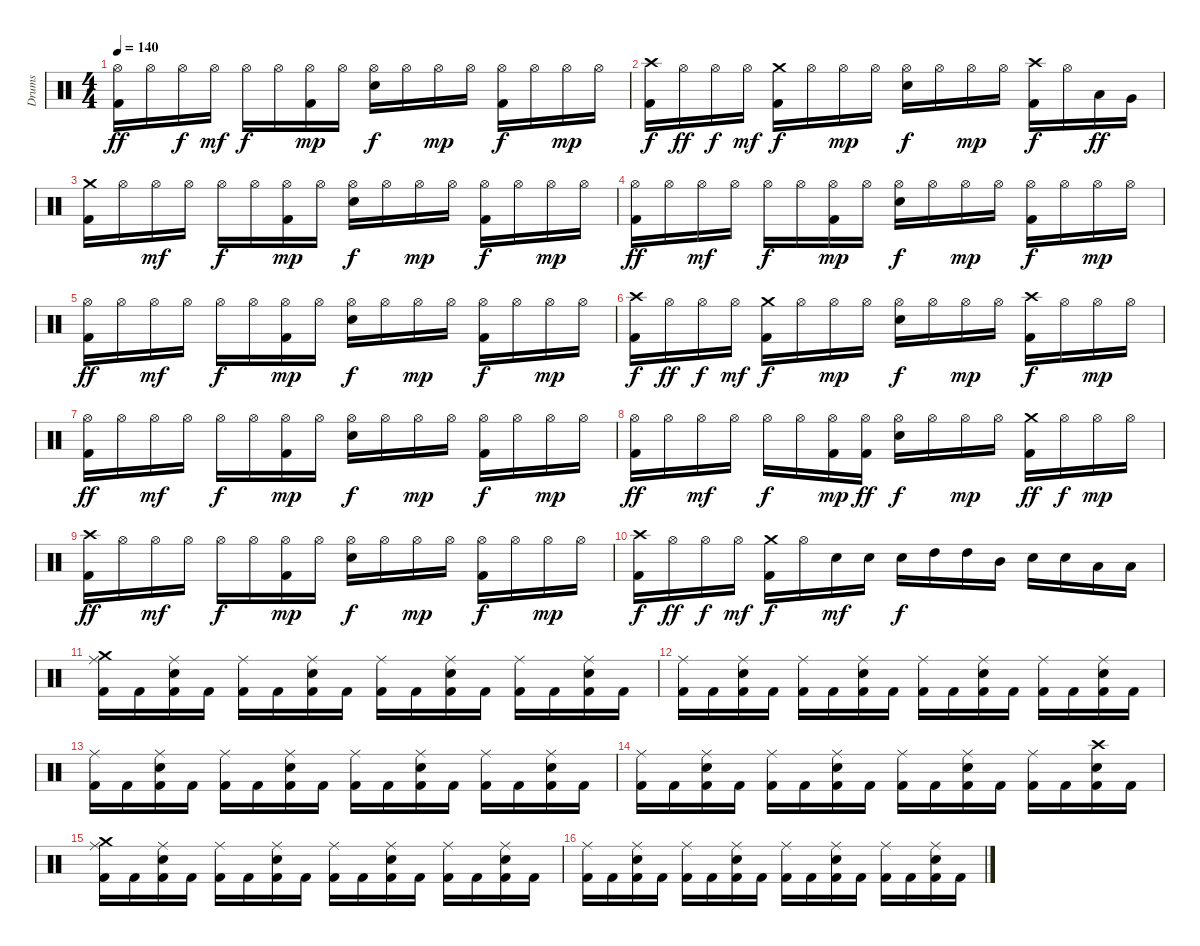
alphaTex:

\track ("Drums" "Drums") {instrument percussion}
\staff {score}
\articulation defaults
\ts (4 4)
\tempo 140
\clef neutral
\ks c
("Hi-Hat (open)" "Kick (hit) 2").16{dy ff} "Hi-Hat (open)".16 "Hi-Hat (open)".16{dy f} "Hi-Hat (open)".16{dy mf} "Hi-Hat (open)".16{dy f} "Hi-Hat (open)".16 ("Hi-Hat (open)" "Kick (hit) 2").16{dy mp} "Hi-Hat (open)".16 ("Hi-Hat (open)" "Electric Snare (hit)").16{dy f} "Hi-Hat (open)".16 "Hi-Hat (open)".16{dy mp} "Hi-Hat (open)".16 ("Hi-Hat (open)" "Kick (hit) 2").16{dy f} "Hi-Hat (open)".16 "Hi-Hat (open)".16{dy mp} "Hi-Hat (open)".16 |
("Crash high (hit)" "Kick (hit) 2").16{dy f} "Hi-Hat (open)".16{dy ff} "Hi-Hat (open)".16{dy f} "Hi-Hat (open)".16{dy mf} ("Crash medium (hit)" "Kick (hit) 2").16{dy f} "Hi-Hat (open)".16 "Hi-Hat (open)".16{dy mp} "Hi-Hat (open)".16 ("Hi-Hat (open)" "Electric Snare (hit)").16{dy f} "Hi-Hat (open)".16 "Hi-Hat (open)".16{dy mp} "Hi-Hat (open)".16 ("Crash high (hit)" "Kick (hit) 2").16{dy f} "Hi-Hat (open)".16 "Low Tom (hit)".16{dy ff} "Very Low Tom (hit)".16 |
("Crash medium (hit)" "Kick (hit) 2").16 "Hi-Hat (open)".16 "Hi-Hat (open)".16{dy mf} "Hi-Hat (open)".16 "Hi-Hat (open)".16{dy f} "Hi-Hat (open)".16 ("Hi-Hat (open)" "Kick (hit) 2").16{dy mp} "Hi-Hat (open)".16 ("Hi-Hat (open)" "Electric Snare (hit)").16{dy f} "Hi-Hat (open)".16 "Hi-Hat (open)".16{dy mp} "Hi-Hat (open)".16 ("Hi-Hat (open)" "Kick (hit) 2").16{dy f} "Hi-Hat (open)".16 "Hi-Hat (open)".16{dy mp} "Hi-Hat (open)".16 |
("Hi-Hat (open)" "Kick (hit) 2").16{dy ff} "Hi-Hat (open)".16 "Hi-Hat (open)".16{dy mf} "Hi-Hat (open)".16 "Hi-Hat (open)".16{dy f} "Hi-Hat (open)".16 ("Hi-Hat (open)" "Kick (hit) 2").16{dy mp} "Hi-Hat (open)".16 ("Hi-Hat (open)" "Electric Snare (hit)").16{dy f} "Hi-Hat (open)".16 "Hi-Hat (open)".16{dy mp} "Hi-Hat (open)".16 ("Hi-Hat (open)" "Kick (hit) 2").16{dy f} "Hi-Hat (open)".16 "Hi-Hat (open)".16{dy mp} "Hi-Hat (open)".16 |
("Hi-Hat (open)" "Kick (hit) 2").16{dy ff} "Hi-Hat (open)".16 "Hi-Hat (open)".16{dy mf} "Hi-Hat (open)".16 "Hi-Hat (open)".16{dy f} "Hi-Hat (open)".16 ("Hi-Hat (open)" "Kick (hit) 2").16{dy mp} "Hi-Hat (open)".16 ("Hi-Hat (open)" "Electric Snare (hit)").16{dy f} "Hi-Hat (open)".16 "Hi-Hat (open)".16{dy mp} "Hi-Hat (open)".16 ("Hi-Hat (open)" "Kick (hit) 2").16{dy f} "Hi-Hat (open)".16 "Hi-Hat (open)".16{dy mp} "Hi-Hat (open)".16 |
("Crash high (hit)" "Kick (hit) 2").16{dy f} "Hi-Hat (open)".16{dy ff} "Hi-Hat (open)".16{dy f} "Hi-Hat (open)".16{dy mf} ("Crash medium (hit)" "Kick (hit) 2").16{dy f} "Hi-Hat (open)".16 "Hi-Hat (open)".16{dy mp} "Hi-Hat (open)".16 ("Hi-Hat (open)" "Electric Snare (hit)").16{dy f} "Hi-Hat (open)".16 "Hi-Hat (open)".16{dy mp} "Hi-Hat (open)".16 ("Crash high (hit)" "Kick (hit) 2").16{dy f} "Hi-Hat (open)".16 "Hi-Hat (open)".16{dy mp} "Hi-Hat (open)".16 |
("Hi-Hat (open)" "Kick (hit) 2").16{dy ff} "Hi-Hat (open)".16 "Hi-Hat (open)".16{dy mf} "Hi-Hat (open)".16 "Hi-Hat (open)".16{dy f} "Hi-Hat (open)".16 ("Hi-Hat (open)" "Kick (hit) 2").16{dy mp} "Hi-Hat (open)".16 ("Hi-Hat (open)" "Electric Snare (hit)").16{dy f} "Hi-Hat (open)".16 "Hi-Hat (open)".16{dy mp} "Hi-Hat (open)".16 ("Hi-Hat (open)" "Kick (hit) 2").16{dy f} "Hi-Hat (open)".16 "Hi-Hat (open)".16{dy mp} "Hi-Hat (open)".16 |
("Hi-Hat (open)" "Kick (hit) 2").16{dy ff} "Hi-Hat (open)".16 "Hi-Hat (open)".16{dy mf} "Hi-Hat (open)".16 "Hi-Hat (open)".16{dy f} "Hi-Hat (open)".16 ("Hi-Hat (open)" "Kick (hit) 2").16{dy mp} ("Hi-Hat (open)" "Kick (hit) 2").16{dy ff} ("Hi-Hat (open)" "Electric Snare (hit)").16{dy f} "Hi-Hat (open)".16 "Hi-Hat (open)".16{dy mp} "Hi-Hat (open)".16 ("Crash medium (hit)" "Kick (hit) 2").16{dy ff} "Hi-Hat (open)".16{dy f} "Hi-Hat (open)".16{dy mp} "Hi-Hat (open)".16 |
("Crash high (hit)" "Kick (hit) 2").16{dy ff} "Hi-Hat (open)".16 "Hi-Hat (open)".16{dy mf} "Hi-Hat (open)".16 "Hi-Hat (open)".16{dy f} "Hi-Hat (open)".16 ("Hi-Hat (open)" "Kick (hit) 2").16{dy mp} "Hi-Hat (open)".16 ("Hi-Hat (open)" "Electric Snare (hit)").16{dy f} "Hi-Hat (open)".16 "Hi-Hat (open)".16{dy mp} "Hi-Hat (open)".16 ("Hi-Hat (open)" "Kick (hit) 2").16{dy f} "Hi-Hat (open)".16 "Hi-Hat (open)".16{dy mp} "Hi-Hat (open)".16 |
("Crash high (hit)" "Kick (hit) 2").16{dy f} "Hi-Hat (open)".16{dy ff} "Hi-Hat (open)".16{dy f} "Hi-Hat (open)".16{dy mf} ("Crash medium (hit)" "Kick (hit) 2").16{dy f} "Hi-Hat (open)".16 "Electric Snare (hit)".16{dy mf} "Electric Snare (hit)".16 "Electric Snare (hit)".16{dy f} "High Tom (hit)".16 "High Tom (hit)".16 "Mid Tom (hit)".16 "Electric Snare (hit)".16 "Electric Snare (hit)".16 "Low Tom (hit)".16 "Low Tom (hit)".16 |
("Crash medium (hit)" "Ride (middle)" "Kick (hit) 2").16 "Kick (hit) 2".16 ("Ride (middle)" "Electric Snare (hit)" "Kick (hit) 2").16 "Kick (hit) 2".16 ("Ride (middle)" "Kick (hit) 2").16 "Kick (hit) 2".16 ("Ride (middle)" "Electric Snare (hit)" "Kick (hit) 2").16 "Kick (hit) 2".16 ("Ride (middle)" "Kick (hit) 2").16 "Kick (hit) 2".16 ("Ride (middle)" "Electric Snare (hit)" "Kick (hit) 2").16 "Kick (hit) 2".16 ("Ride (middle)" "Kick (hit) 2").16 "Kick (hit) 2".16 ("Ride (middle)" "Electric Snare (hit)" "Kick (hit) 2").16 "Kick (hit) 2".16 |
("Ride (middle)" "Kick (hit) 2").16 "Kick (hit) 2".16 ("Ride (middle)" "Electric Snare (hit)" "Kick (hit) 2").16 "Kick (hit) 2".16 ("Ride (middle)" "Kick (hit) 2").16 "Kick (hit) 2".16 ("Ride (middle)" "Electric Snare (hit)" "Kick (hit) 2").16 "Kick (hit) 2".16 ("Ride (middle)" "Kick (hit) 2").16 "Kick (hit) 2".16 ("Ride (middle)" "Electric Snare (hit)" "Kick (hit) 2").16 "Kick (hit) 2".16 ("Ride (middle)" "Kick (hit) 2").16 "Kick (hit) 2".16 ("Ride (middle)" "Electric Snare (hit)" "Kick (hit) 2").16 "Kick (hit) 2".16 |
("Ride (middle)" "Kick (hit) 2").16 "Kick (hit) 2".16 ("Ride (middle)" "Electric Snare (hit)" "Kick (hit) 2").16 "Kick (hit) 2".16 ("Ride (middle)" "Kick (hit) 2").16 "Kick (hit) 2".16 ("Ride (middle)" "Electric Snare (hit)" "Kick (hit) 2").16 "Kick (hit) 2".16 ("Ride (middle)" "Kick (hit) 2").16 "Kick (hit) 2".16 ("Ride (middle)" "Electric Snare (hit)" "Kick (hit) 2").16 "Kick (hit) 2".16 ("Ride (middle)" "Kick (hit) 2").16 "Kick (hit) 2".16 ("Ride (middle)" "Electric Snare (hit)" "Kick (hit) 2").16 "Kick (hit) 2".16 |
("Ride (middle)" "Kick (hit) 2").16 "Kick (hit) 2".16 ("Ride (middle)" "Electric Snare (hit)" "Kick (hit) 2").16 "Kick (hit) 2".16 ("Ride (middle)" "Kick (hit) 2").16 "Kick (hit) 2".16 ("Ride (middle)" "Electric Snare (hit)" "Kick (hit) 2").16 "Kick (hit) 2".16 ("Ride (middle)" "Kick (hit) 2").16 "Kick (hit) 2".16 ("Ride (middle)" "Electric Snare (hit)" "Kick (hit) 2").16 "Kick (hit) 2".16 ("Ride (middle)" "Kick (hit) 2").16 "Kick (hit) 2".16 ("Crash high (hit)" "Electric Snare (hit)" "Kick (hit) 2").16 "Kick (hit) 2".16 |
("Crash medium (hit)" "Ride (middle)" "Kick (hit) 2").16 "Kick (hit) 2".16 ("Ride (middle)" "Electric Snare (hit)" "Kick (hit) 2").16 "Kick (hit) 2".16 ("Ride (middle)" "Kick (hit) 2").16 "Kick (hit) 2".16 ("Ride (middle)" "Electric Snare (hit)" "Kick (hit) 2").16 "Kick (hit) 2".16 ("Ride (middle)" "Kick (hit) 2").16 "Kick (hit) 2".16 ("Ride (middle)" "Electric Snare (hit)" "Kick (hit) 2").16 "Kick (hit) 2".16 ("Ride (middle)" "Kick (hit) 2").16 "Kick (hit) 2".16 ("Ride (middle)" "Electric Snare (hit)" "Kick (hit) 2").16 "Kick (hit) 2".16 |
("Ride (middle)" "Kick (hit) 2").16 "Kick (hit) 2".16 ("Ride (middle)" "Electric Snare (hit)" "Kick (hit) 2").16 "Kick (hit) 2".16 ("Ride (middle)" "Kick (hit) 2").16 "Kick (hit) 2".16 ("Ride (middle)" "Electric Snare (hit)" "Kick (hit) 2").16 "Kick (hit) 2".16 ("Ride (middle)" "Kick (hit) 2").16 "Kick (hit) 2".16 ("Ride (middle)" "Electric Snare (hit)" "Kick (hit) 2").16 "Kick (hit) 2".16 ("Ride (middle)" "Kick (hit) 2").16 "Kick (hit) 2".16 ("Ride (middle)" "Electric Snare (hit)" "Kick (hit) 2").16 "Kick (hit) 2".16
